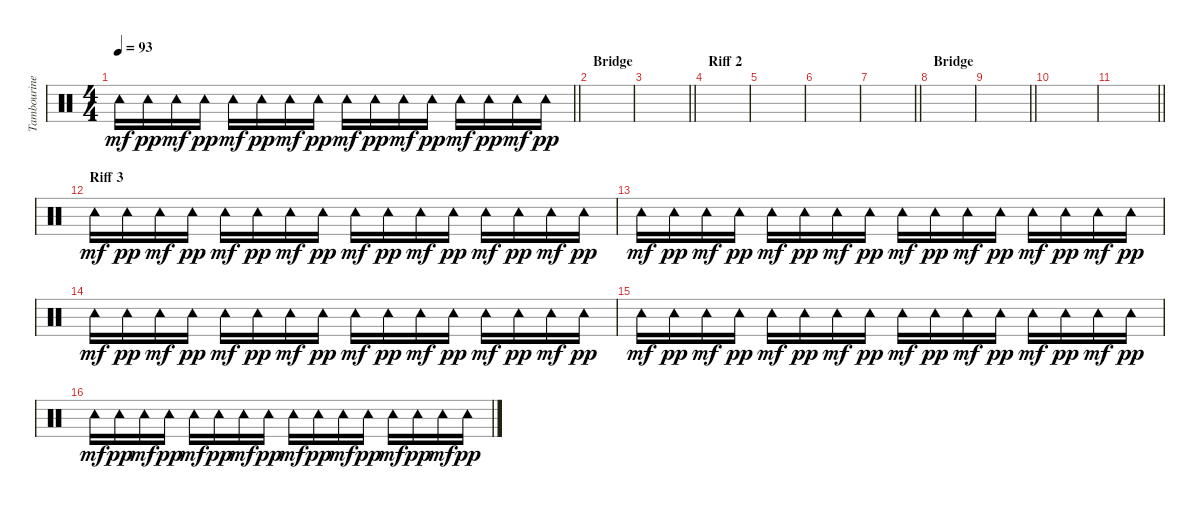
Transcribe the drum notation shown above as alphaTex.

\track ("Tambourine" "Tambourine") {instrument percussion}
\staff {score}
\articulation defaults
\ts (4 4)
\tempo 93
\clef neutral
\barLineRight lightlight
\ks c "Tambourine (hit)".16{dy mf} "Tambourine (hit)".16{dy pp} "Tambourine (hit)".16{dy mf} "Tambourine (hit)".16{dy pp} "Tambourine (hit)".16{dy mf} "Tambourine (hit)".16{dy pp} "Tambourine (hit)".16{dy mf} "Tambourine (hit)".16{dy pp} "Tambourine (hit)".16{dy mf} "Tambourine (hit)".16{dy pp} "Tambourine (hit)".16{dy mf} "Tambourine (hit)".16{dy pp} "Tambourine (hit)".16{dy mf} "Tambourine (hit)".16{dy pp} "Tambourine (hit)".16{dy mf} "Tambourine (hit)".16{dy pp}
|
\section ("" "Bridge")
|
\barLineRight lightlight
|
\section ("" "Riff 2")
|
|
|
\barLineRight lightlight
|
\section ("" "Bridge")
|
\barLineRight lightlight
|
|
\barLineRight lightlight
|
\section ("" "Riff 3")
"Tambourine (hit)".16{dy mf} "Tambourine (hit)".16{dy pp} "Tambourine (hit)".16{dy mf} "Tambourine (hit)".16{dy pp} "Tambourine (hit)".16{dy mf} "Tambourine (hit)".16{dy pp} "Tambourine (hit)".16{dy mf} "Tambourine (hit)".16{dy pp} "Tambourine (hit)".16{dy mf} "Tambourine (hit)".16{dy pp} "Tambourine (hit)".16{dy mf} "Tambourine (hit)".16{dy pp} "Tambourine (hit)".16{dy mf} "Tambourine (hit)".16{dy pp} "Tambourine (hit)".16{dy mf} "Tambourine (hit)".16{dy pp} |
"Tambourine (hit)".16{dy mf} "Tambourine (hit)".16{dy pp} "Tambourine (hit)".16{dy mf} "Tambourine (hit)".16{dy pp} "Tambourine (hit)".16{dy mf} "Tambourine (hit)".16{dy pp} "Tambourine (hit)".16{dy mf} "Tambourine (hit)".16{dy pp} "Tambourine (hit)".16{dy mf} "Tambourine (hit)".16{dy pp} "Tambourine (hit)".16{dy mf} "Tambourine (hit)".16{dy pp} "Tambourine (hit)".16{dy mf} "Tambourine (hit)".16{dy pp} "Tambourine (hit)".16{dy mf} "Tambourine (hit)".16{dy pp} |
"Tambourine (hit)".16{dy mf} "Tambourine (hit)".16{dy pp} "Tambourine (hit)".16{dy mf} "Tambourine (hit)".16{dy pp} "Tambourine (hit)".16{dy mf} "Tambourine (hit)".16{dy pp} "Tambourine (hit)".16{dy mf} "Tambourine (hit)".16{dy pp} "Tambourine (hit)".16{dy mf} "Tambourine (hit)".16{dy pp} "Tambourine (hit)".16{dy mf} "Tambourine (hit)".16{dy pp} "Tambourine (hit)".16{dy mf} "Tambourine (hit)".16{dy pp} "Tambourine (hit)".16{dy mf} "Tambourine (hit)".16{dy pp} |
"Tambourine (hit)".16{dy mf} "Tambourine (hit)".16{dy pp} "Tambourine (hit)".16{dy mf} "Tambourine (hit)".16{dy pp} "Tambourine (hit)".16{dy mf} "Tambourine (hit)".16{dy pp} "Tambourine (hit)".16{dy mf} "Tambourine (hit)".16{dy pp} "Tambourine (hit)".16{dy mf} "Tambourine (hit)".16{dy pp} "Tambourine (hit)".16{dy mf} "Tambourine (hit)".16{dy pp} "Tambourine (hit)".16{dy mf} "Tambourine (hit)".16{dy pp} "Tambourine (hit)".16{dy mf} "Tambourine (hit)".16{dy pp} |
"Tambourine (hit)".16{dy mf} "Tambourine (hit)".16{dy pp} "Tambourine (hit)".16{dy mf} "Tambourine (hit)".16{dy pp} "Tambourine (hit)".16{dy mf} "Tambourine (hit)".16{dy pp} "Tambourine (hit)".16{dy mf} "Tambourine (hit)".16{dy pp} "Tambourine (hit)".16{dy mf} "Tambourine (hit)".16{dy pp} "Tambourine (hit)".16{dy mf} "Tambourine (hit)".16{dy pp} "Tambourine (hit)".16{dy mf} "Tambourine (hit)".16{dy pp} "Tambourine (hit)".16{dy mf} "Tambourine (hit)".16{dy pp}
